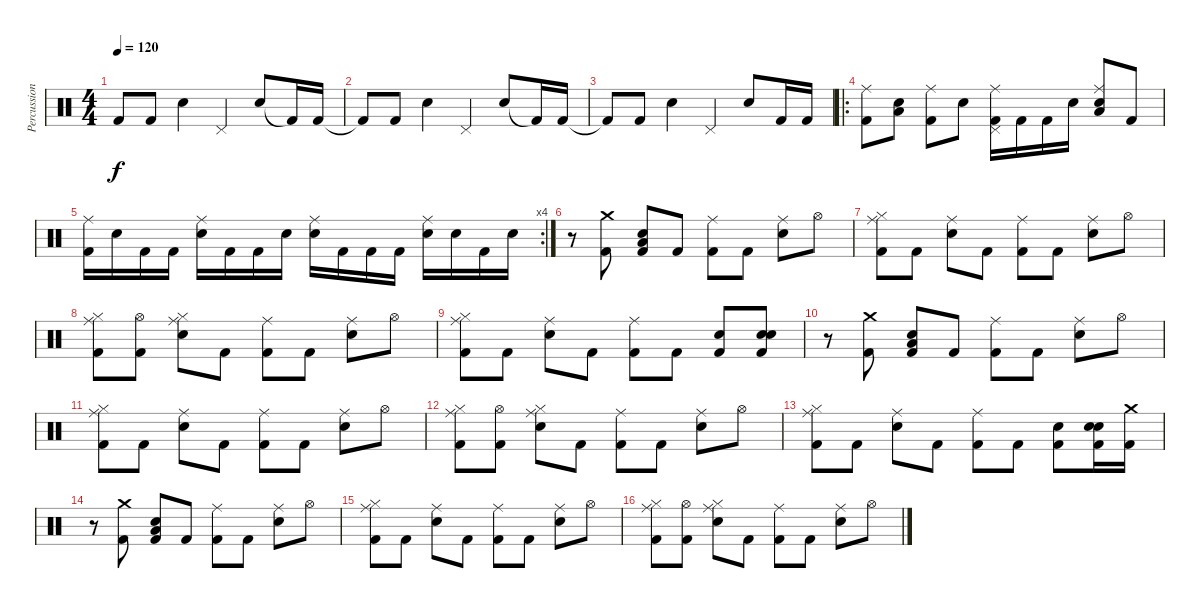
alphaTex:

\track ("Percussioni" "Percussion") {instrument percussion}
\staff {score}
\articulation defaults
\ts (4 4)
\tempo 120
\clef neutral
\ks c "Kick (hit) 2"{t}.8{dy f} "Kick (hit) 2".8 "Electric Snare (hit)".4 "Pedal Hi-Hat (hit)".4 "Electric Snare (hit)".8 "Kick (hit) 2"{t}.16 "Kick (hit) 2".16
|
"Kick (hit) 2"{t}.8 "Kick (hit) 2".8 "Electric Snare (hit)".4 "Pedal Hi-Hat (hit)".4 "Electric Snare (hit)".8 "Kick (hit) 2"{t}.16 "Kick (hit) 2".16 |
"Kick (hit) 2"{t}.8 "Kick (hit) 2".8 "Electric Snare (hit)".4 "Pedal Hi-Hat (hit)".4 "Electric Snare (hit)".8 "Kick (hit) 2".16 "Kick (hit) 2".16 |
\ro
("Ride (middle)" "Kick (hit) 2").8 ("Low Floor Tom (hit)" "Electric Snare (hit)").8 ("Ride (middle)" "Kick (hit) 2").8 "Electric Snare (hit)".8 ("Ride (middle)" "Pedal Hi-Hat (hit)" "Kick (hit) 2").16 "Kick (hit) 2".16 "Kick (hit) 2".16 "Snare (hit) 2".16 ("Ride (middle)" "Low Floor Tom (hit)" "Electric Snare (hit)").8 "Kick (hit) 2".8 |
\rc 4
("Ride (middle)" "Kick (hit) 2").16 "Electric Snare (hit)".16 "Kick (hit) 2".16 "Kick (hit) 2".16 ("Ride (middle)" "Electric Snare (hit)").16 "Kick (hit) 2".16 "Kick (hit) 2".16 "Snare (hit) 2".16 ("Ride (middle)" "Electric Snare (hit)").16 "Kick (hit) 2".16 "Kick (hit) 2".16 "Kick (hit) 2".16 ("Ride (middle)" "Electric Snare (hit)").16 "Snare (hit) 2".16 "Kick (hit) 2".16 "Electric Snare (hit)".16 |
r.8 ("Crash medium (hit)" "Kick (hit) 2").8 ("Low Floor Tom (hit)" "Electric Snare (hit)" "Kick (hit) 2").8 "Kick (hit) 2".8 ("Ride (middle)" "Kick (hit) 2").8 "Kick (hit) 2".8 ("Ride (middle)" "Electric Snare (hit)").8 "Hi-Hat (open)".8 |
("Ride (middle)" "Hi-Hat (closed)" "Kick (hit) 2").8 "Kick (hit) 2".8 ("Ride (middle)" "Electric Snare (hit)").8 "Kick (hit) 2".8 ("Ride (middle)" "Kick (hit) 2").8 "Kick (hit) 2".8 ("Ride (middle)" "Electric Snare (hit)").8 "Hi-Hat (open)".8 |
("Ride (middle)" "Hi-Hat (closed)" "Kick (hit) 2").8 ("Hi-Hat (open)" "Kick (hit) 2").8 ("Hi-Hat (closed)" "Ride (middle)" "Electric Snare (hit)").8 "Kick (hit) 2".8 ("Ride (middle)" "Kick (hit) 2").8 "Kick (hit) 2".8 ("Ride (middle)" "Electric Snare (hit)").8 "Hi-Hat (open)".8 |
("Ride (middle)" "Hi-Hat (closed)" "Kick (hit) 2").8 "Kick (hit) 2".8 ("Ride (middle)" "Electric Snare (hit)").8 "Kick (hit) 2".8 ("Ride (middle)" "Kick (hit) 2").8 "Kick (hit) 2".8 ("Kick (hit) 2" "Electric Snare (hit)").8 ("Snare (hit) 2" "Kick (hit) 2" "Electric Snare (hit)").8 |
r.8 ("Crash medium (hit)" "Kick (hit) 2").8 ("Low Floor Tom (hit)" "Electric Snare (hit)" "Kick (hit) 2").8 "Kick (hit) 2".8 ("Ride (middle)" "Kick (hit) 2").8 "Kick (hit) 2".8 ("Ride (middle)" "Electric Snare (hit)").8 "Hi-Hat (open)".8 |
("Ride (middle)" "Hi-Hat (closed)" "Kick (hit) 2").8 "Kick (hit) 2".8 ("Ride (middle)" "Electric Snare (hit)").8 "Kick (hit) 2".8 ("Ride (middle)" "Kick (hit) 2").8 "Kick (hit) 2".8 ("Ride (middle)" "Electric Snare (hit)").8 "Hi-Hat (open)".8 |
("Ride (middle)" "Hi-Hat (closed)" "Kick (hit) 2").8 ("Hi-Hat (open)" "Kick (hit) 2").8 ("Hi-Hat (closed)" "Ride (middle)" "Electric Snare (hit)").8 "Kick (hit) 2".8 ("Ride (middle)" "Kick (hit) 2").8 "Kick (hit) 2".8 ("Ride (middle)" "Electric Snare (hit)").8 "Hi-Hat (open)".8 |
("Ride (middle)" "Hi-Hat (closed)" "Kick (hit) 2").8 "Kick (hit) 2".8 ("Ride (middle)" "Electric Snare (hit)").8 "Kick (hit) 2".8 ("Ride (middle)" "Kick (hit) 2").8 "Kick (hit) 2".8 ("Kick (hit) 2" "Electric Snare (hit)").8 ("Snare (hit) 2" "Kick (hit) 2" "Electric Snare (hit)").16 ("Crash medium (hit)" "Kick (hit) 2").16 |
r.8 ("Crash medium (hit)" "Kick (hit) 2").8 ("Low Floor Tom (hit)" "Electric Snare (hit)" "Kick (hit) 2").8 "Kick (hit) 2".8 ("Ride (middle)" "Kick (hit) 2").8 "Kick (hit) 2".8 ("Ride (middle)" "Electric Snare (hit)").8 "Hi-Hat (open)".8 |
("Ride (middle)" "Hi-Hat (closed)" "Kick (hit) 2").8 "Kick (hit) 2".8 ("Ride (middle)" "Electric Snare (hit)").8 "Kick (hit) 2".8 ("Ride (middle)" "Kick (hit) 2").8 "Kick (hit) 2".8 ("Ride (middle)" "Electric Snare (hit)").8 "Hi-Hat (open)".8 |
("Ride (middle)" "Hi-Hat (closed)" "Kick (hit) 2").8 ("Hi-Hat (open)" "Kick (hit) 2").8 ("Hi-Hat (closed)" "Ride (middle)" "Electric Snare (hit)").8 "Kick (hit) 2".8 ("Ride (middle)" "Kick (hit) 2").8 "Kick (hit) 2".8 ("Ride (middle)" "Electric Snare (hit)").8 "Hi-Hat (open)".8
